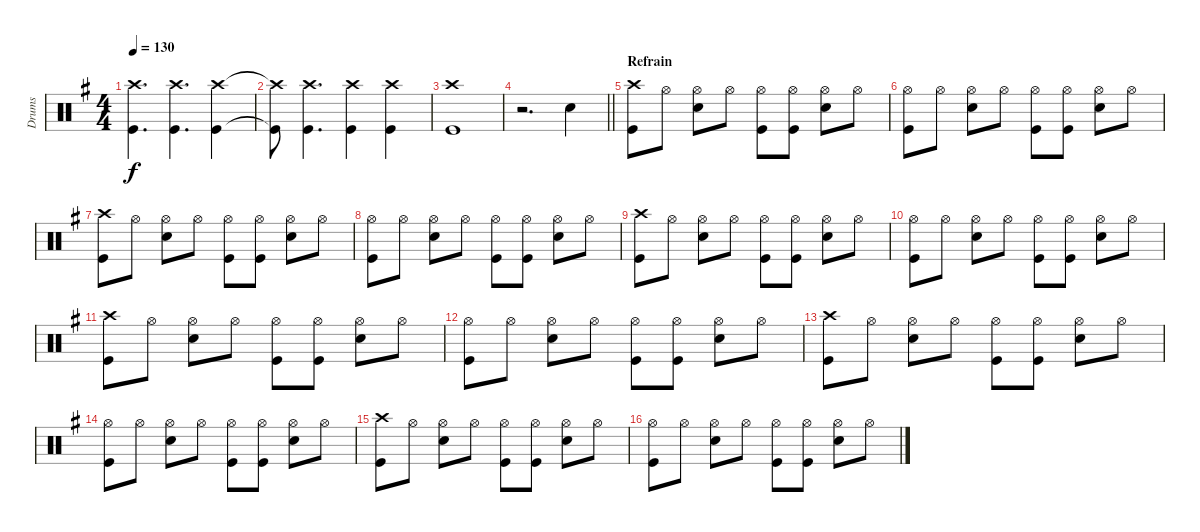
\track ("Drums" "Drums") {instrument percussion}
\staff {score}
\articulation defaults
\ts (4 4)
\tempo 130
\clef neutral
\ks g
("Crash high (hit)" "Kick (hit)").4{d dy f} ("Crash high (hit)" "Kick (hit)").4{d} ("Crash high (hit)" "Kick (hit)").4 |
("Crash high (hit)"{t} "Kick (hit)"{t}).8 ("Crash high (hit)" "Kick (hit)").4{d} ("Crash high (hit)" "Kick (hit)").4 ("Crash high (hit)" "Kick (hit)").4 |
("Crash high (hit)" "Kick (hit)").1 |
\barLineRight lightlight
r.2{d} "Snare (hit) 2".4 |
\section ("" "Refrain")
("Crash high (hit)" "Kick (hit)").8 "Hi-Hat (open)".8 ("Hi-Hat (open)" "Snare (hit) 2").8 "Hi-Hat (open)".8 ("Hi-Hat (open)" "Kick (hit)").8 ("Hi-Hat (open)" "Kick (hit)").8 ("Hi-Hat (open)" "Snare (hit) 2").8 "Hi-Hat (open)".8 |
("Hi-Hat (open)" "Kick (hit)").8 "Hi-Hat (open)".8 ("Hi-Hat (open)" "Snare (hit) 2").8 "Hi-Hat (open)".8 ("Hi-Hat (open)" "Kick (hit)").8 ("Hi-Hat (open)" "Kick (hit)").8 ("Hi-Hat (open)" "Snare (hit) 2").8 "Hi-Hat (open)".8 |
("Crash high (hit)" "Kick (hit)").8 "Hi-Hat (open)".8 ("Hi-Hat (open)" "Snare (hit) 2").8 "Hi-Hat (open)".8 ("Hi-Hat (open)" "Kick (hit)").8 ("Hi-Hat (open)" "Kick (hit)").8 ("Hi-Hat (open)" "Snare (hit) 2").8 "Hi-Hat (open)".8 |
("Hi-Hat (open)" "Kick (hit)").8 "Hi-Hat (open)".8 ("Hi-Hat (open)" "Snare (hit) 2").8 "Hi-Hat (open)".8 ("Hi-Hat (open)" "Kick (hit)").8 ("Hi-Hat (open)" "Kick (hit)").8 ("Hi-Hat (open)" "Snare (hit) 2").8 "Hi-Hat (open)".8 |
("Crash high (hit)" "Kick (hit)").8 "Hi-Hat (open)".8 ("Hi-Hat (open)" "Snare (hit) 2").8 "Hi-Hat (open)".8 ("Hi-Hat (open)" "Kick (hit)").8 ("Hi-Hat (open)" "Kick (hit)").8 ("Hi-Hat (open)" "Snare (hit) 2").8 "Hi-Hat (open)".8 |
("Hi-Hat (open)" "Kick (hit)").8 "Hi-Hat (open)".8 ("Hi-Hat (open)" "Snare (hit) 2").8 "Hi-Hat (open)".8 ("Hi-Hat (open)" "Kick (hit)").8 ("Hi-Hat (open)" "Kick (hit)").8 ("Hi-Hat (open)" "Snare (hit) 2").8 "Hi-Hat (open)".8 |
("Crash high (hit)" "Kick (hit)").8 "Hi-Hat (open)".8 ("Hi-Hat (open)" "Snare (hit) 2").8 "Hi-Hat (open)".8 ("Hi-Hat (open)" "Kick (hit)").8 ("Hi-Hat (open)" "Kick (hit)").8 ("Hi-Hat (open)" "Snare (hit) 2").8 "Hi-Hat (open)".8 |
("Hi-Hat (open)" "Kick (hit)").8 "Hi-Hat (open)".8 ("Hi-Hat (open)" "Snare (hit) 2").8 "Hi-Hat (open)".8 ("Hi-Hat (open)" "Kick (hit)").8 ("Hi-Hat (open)" "Kick (hit)").8 ("Hi-Hat (open)" "Snare (hit) 2").8 "Hi-Hat (open)".8 |
("Crash high (hit)" "Kick (hit)").8 "Hi-Hat (open)".8 ("Hi-Hat (open)" "Snare (hit) 2").8 "Hi-Hat (open)".8 ("Hi-Hat (open)" "Kick (hit)").8 ("Hi-Hat (open)" "Kick (hit)").8 ("Hi-Hat (open)" "Snare (hit) 2").8 "Hi-Hat (open)".8 |
("Hi-Hat (open)" "Kick (hit)").8 "Hi-Hat (open)".8 ("Hi-Hat (open)" "Snare (hit) 2").8 "Hi-Hat (open)".8 ("Hi-Hat (open)" "Kick (hit)").8 ("Hi-Hat (open)" "Kick (hit)").8 ("Hi-Hat (open)" "Snare (hit) 2").8 "Hi-Hat (open)".8 |
("Crash high (hit)" "Kick (hit)").8 "Hi-Hat (open)".8 ("Hi-Hat (open)" "Snare (hit) 2").8 "Hi-Hat (open)".8 ("Hi-Hat (open)" "Kick (hit)").8 ("Hi-Hat (open)" "Kick (hit)").8 ("Hi-Hat (open)" "Snare (hit) 2").8 "Hi-Hat (open)".8 |
("Hi-Hat (open)" "Kick (hit)").8 "Hi-Hat (open)".8 ("Hi-Hat (open)" "Snare (hit) 2").8 "Hi-Hat (open)".8 ("Hi-Hat (open)" "Kick (hit)").8 ("Hi-Hat (open)" "Kick (hit)").8 ("Hi-Hat (open)" "Snare (hit) 2").8 "Hi-Hat (open)".8
